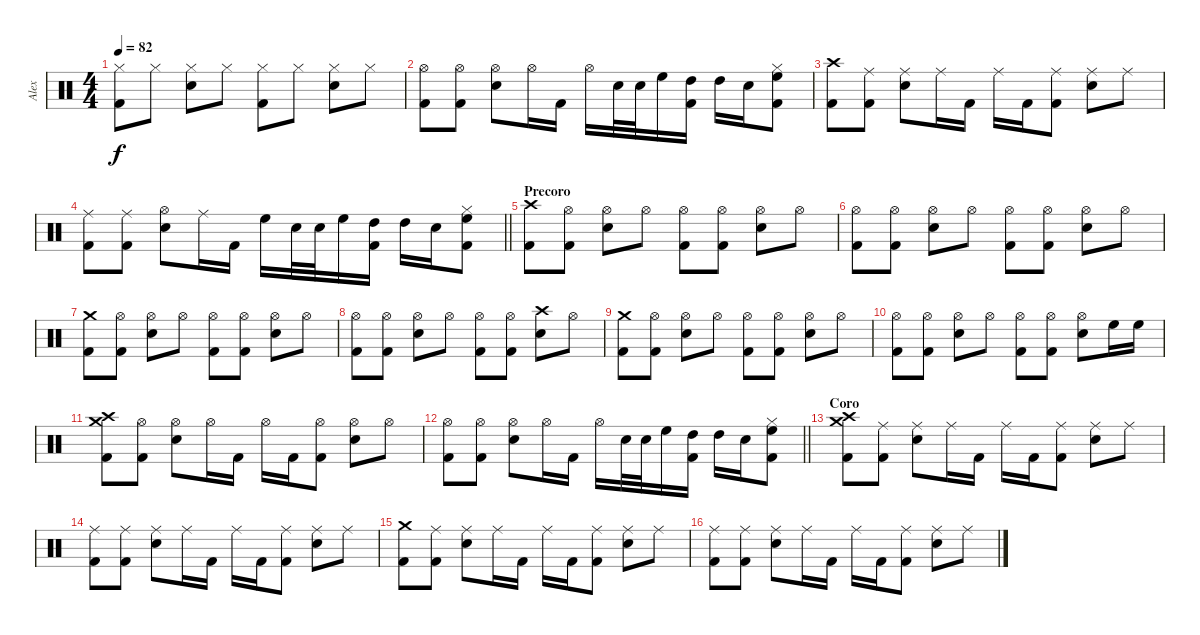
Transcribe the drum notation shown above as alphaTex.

\track ("Alex" "Alex") {instrument percussion}
\staff {score}
\articulation defaults
\ts (4 4)
\tempo 82
\clef neutral
\ks c
("Hi-Hat (closed)" "Kick (hit) 2").8{dy f} "Hi-Hat (closed)".8 ("Hi-Hat (closed)" "Electric Snare (hit)").8 "Hi-Hat (closed)".8 ("Hi-Hat (closed)" "Kick (hit) 2").8 "Hi-Hat (closed)".8 ("Hi-Hat (closed)" "Electric Snare (hit)").8 "Hi-Hat (closed)".8 |
("Hi-Hat (open)" "Kick (hit) 2").8 ("Hi-Hat (open)" "Kick (hit) 2").8 ("Hi-Hat (open)" "Electric Snare (hit)").8 "Hi-Hat (open)".16 "Kick (hit) 2".16 "Hi-Hat (open)".16 "Electric Snare (hit)".32 "Electric Snare (hit)".32 "High Floor Tom (hit)".16 ("Kick (hit) 2" "High Tom (hit)").16 "High Tom (hit)".16 "Electric Snare (hit)".16 ("Kick (hit) 2" "High Floor Tom (hit)" "Hi-Hat (closed)").8 |
("Crash high (hit)" "Kick (hit) 2").8 ("Ride (middle)" "Kick (hit) 2").8 ("Ride (middle)" "Electric Snare (hit)").8 "Ride (middle)".16 "Kick (hit) 2".16 "Ride (middle)".16 "Kick (hit) 2".16 ("Ride (middle)" "Kick (hit) 2").8 ("Ride (middle)" "Electric Snare (hit)").8 "Ride (middle)".8 |
\barLineRight lightlight
("Ride (middle)" "Kick (hit) 2").8 ("Ride (middle)" "Kick (hit) 2").8 ("Hi-Hat (open)" "Electric Snare (hit)").8 "Ride (middle)".16 "Kick (hit) 2".16 "High Floor Tom (hit)".16 "Electric Snare (hit)".32 "Electric Snare (hit)".32 "High Floor Tom (hit)".16 ("Kick (hit) 2" "High Tom (hit)").16 "High Tom (hit)".16 "Electric Snare (hit)".16 ("Kick (hit) 2" "High Floor Tom (hit)" "Hi-Hat (closed)").8 |
\section ("" "Precoro")
("Crash high (hit)" "Kick (hit) 2").8 ("Hi-Hat (open)" "Kick (hit) 2").8 ("Hi-Hat (open)" "Electric Snare (hit)").8 "Hi-Hat (open)".8 ("Hi-Hat (open)" "Kick (hit) 2").8 ("Hi-Hat (open)" "Kick (hit) 2").8 ("Hi-Hat (open)" "Electric Snare (hit)").8 "Hi-Hat (open)".8 |
("Hi-Hat (open)" "Kick (hit) 2").8 ("Hi-Hat (open)" "Kick (hit) 2").8 ("Hi-Hat (open)" "Electric Snare (hit)").8 "Hi-Hat (open)".8 ("Hi-Hat (open)" "Kick (hit) 2").8 ("Hi-Hat (open)" "Kick (hit) 2").8 ("Hi-Hat (open)" "Electric Snare (hit)").8 "Hi-Hat (open)".8 |
("Crash medium (hit)" "Kick (hit) 2").8 ("Hi-Hat (open)" "Kick (hit) 2").8 ("Hi-Hat (open)" "Electric Snare (hit)").8 "Hi-Hat (open)".8 ("Hi-Hat (open)" "Kick (hit) 2").8 ("Hi-Hat (open)" "Kick (hit) 2").8 ("Hi-Hat (open)" "Electric Snare (hit)").8 "Hi-Hat (open)".8 |
("Hi-Hat (open)" "Kick (hit) 2").8 ("Hi-Hat (open)" "Kick (hit) 2").8 ("Hi-Hat (open)" "Electric Snare (hit)").8 "Hi-Hat (open)".8 ("Hi-Hat (open)" "Kick (hit) 2").8 ("Hi-Hat (open)" "Kick (hit) 2").8 ("Crash high (hit)" "Electric Snare (hit)").8 "Hi-Hat (open)".8 |
("Crash medium (hit)" "Kick (hit) 2").8 ("Hi-Hat (open)" "Kick (hit) 2").8 ("Hi-Hat (open)" "Electric Snare (hit)").8 "Hi-Hat (open)".8 ("Hi-Hat (open)" "Kick (hit) 2").8 ("Hi-Hat (open)" "Kick (hit) 2").8 ("Hi-Hat (open)" "Electric Snare (hit)").8 "Hi-Hat (open)".8 |
("Hi-Hat (open)" "Kick (hit) 2").8 ("Hi-Hat (open)" "Kick (hit) 2").8 ("Hi-Hat (open)" "Electric Snare (hit)").8 "Hi-Hat (open)".8 ("Hi-Hat (open)" "Kick (hit) 2").8 ("Hi-Hat (open)" "Kick (hit) 2").8 ("Hi-Hat (open)" "Electric Snare (hit)").8 "High Floor Tom (hit)".16 "High Floor Tom (hit)".16 |
("Crash medium (hit)" "Crash high (hit)" "Kick (hit) 2").8 ("Hi-Hat (open)" "Kick (hit) 2").8 ("Hi-Hat (open)" "Electric Snare (hit)").8 "Hi-Hat (open)".16 "Kick (hit) 2".16 "Hi-Hat (open)".16 "Kick (hit) 2".16 ("Hi-Hat (open)" "Kick (hit) 2").8 ("Hi-Hat (open)" "Electric Snare (hit)").8 "Hi-Hat (open)".8 |
\barLineRight lightlight
("Hi-Hat (open)" "Kick (hit) 2").8 ("Hi-Hat (open)" "Kick (hit) 2").8 ("Hi-Hat (open)" "Electric Snare (hit)").8 "Hi-Hat (open)".16 "Kick (hit) 2".16 "Hi-Hat (open)".16 "Electric Snare (hit)".32 "Electric Snare (hit)".32 "High Floor Tom (hit)".16 ("Kick (hit) 2" "High Tom (hit)").16 "High Tom (hit)".16 "Electric Snare (hit)".16 ("Kick (hit) 2" "High Floor Tom (hit)" "Hi-Hat (closed)").8 |
\section ("" "Coro")
("Crash medium (hit)" "Crash high (hit)" "Kick (hit) 2").8 ("Ride (middle)" "Kick (hit) 2").8 ("Ride (middle)" "Electric Snare (hit)").8 "Ride (middle)".16 "Kick (hit) 2".16 "Ride (middle)".16 "Kick (hit) 2".16 ("Ride (middle)" "Kick (hit) 2").8 ("Ride (middle)" "Electric Snare (hit)").8 "Ride (middle)".8 |
("Ride (middle)" "Kick (hit) 2").8 ("Ride (middle)" "Kick (hit) 2").8 ("Ride (middle)" "Electric Snare (hit)").8 "Ride (middle)".16 "Kick (hit) 2".16 "Ride (middle)".16 "Kick (hit) 2".16 ("Ride (middle)" "Kick (hit) 2").8 ("Ride (middle)" "Electric Snare (hit)").8 "Ride (middle)".8 |
("Crash medium (hit)" "Kick (hit) 2").8 ("Ride (middle)" "Kick (hit) 2").8 ("Ride (middle)" "Electric Snare (hit)").8 "Ride (middle)".16 "Kick (hit) 2".16 "Ride (middle)".16 "Kick (hit) 2".16 ("Ride (middle)" "Kick (hit) 2").8 ("Ride (middle)" "Electric Snare (hit)").8 "Ride (middle)".8 |
("Ride (middle)" "Kick (hit) 2").8 ("Ride (middle)" "Kick (hit) 2").8 ("Ride (middle)" "Electric Snare (hit)").8 "Ride (middle)".16 "Kick (hit) 2".16 "Ride (middle)".16 "Kick (hit) 2".16 ("Ride (middle)" "Kick (hit) 2").8 ("Ride (middle)" "Electric Snare (hit)").8 "Ride (middle)".8
